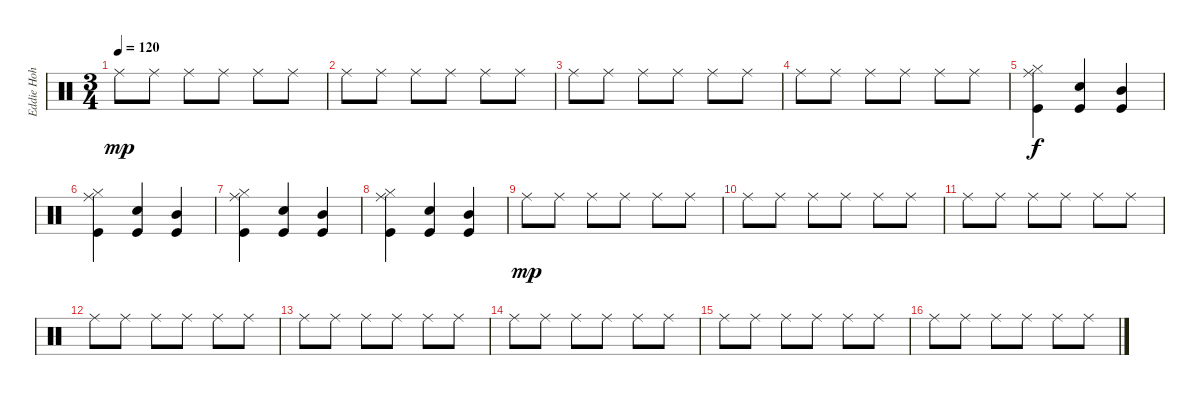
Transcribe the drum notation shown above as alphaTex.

\track ("Eddie Hoh" "Eddie Hoh") {instrument percussion}
\staff {score}
\articulation defaults
\ts (3 4)
\tempo 120
\clef neutral
\ks c "Ride (middle)".8{dy mp} "Ride (middle)".8 "Ride (middle)".8 "Ride (middle)".8 "Ride (middle)".8 "Ride (middle)".8
|
"Ride (middle)".8 "Ride (middle)".8 "Ride (middle)".8 "Ride (middle)".8 "Ride (middle)".8 "Ride (middle)".8 |
"Ride (middle)".8 "Ride (middle)".8 "Ride (middle)".8 "Ride (middle)".8 "Ride (middle)".8 "Ride (middle)".8 |
"Ride (middle)".8 "Ride (middle)".8 "Ride (middle)".8 "Ride (middle)".8 "Ride (middle)".8 "Ride (middle)".8 |
("Ride (middle)" "Hi-Hat (closed)" "Kick (hit)").4{dy f} ("Snare (hit) 2" "Kick (hit)").4 ("Mid Tom (hit)" "Kick (hit)").4 |
("Ride (middle)" "Hi-Hat (closed)" "Kick (hit)").4 ("Snare (hit) 2" "Kick (hit)").4 ("Mid Tom (hit)" "Kick (hit)").4 |
("Ride (middle)" "Hi-Hat (closed)" "Kick (hit)").4 ("Snare (hit) 2" "Kick (hit)").4 ("Mid Tom (hit)" "Kick (hit)").4 |
("Ride (middle)" "Hi-Hat (closed)" "Kick (hit)").4 ("Snare (hit) 2" "Kick (hit)").4 ("Mid Tom (hit)" "Kick (hit)").4 |
"Ride (middle)".8{dy mp} "Ride (middle)".8 "Ride (middle)".8 "Ride (middle)".8 "Ride (middle)".8 "Ride (middle)".8 |
"Ride (middle)".8 "Ride (middle)".8 "Ride (middle)".8 "Ride (middle)".8 "Ride (middle)".8 "Ride (middle)".8 |
"Ride (middle)".8 "Ride (middle)".8 "Ride (middle)".8 "Ride (middle)".8 "Ride (middle)".8 "Ride (middle)".8 |
"Ride (middle)".8 "Ride (middle)".8 "Ride (middle)".8 "Ride (middle)".8 "Ride (middle)".8 "Ride (middle)".8 |
"Ride (middle)".8 "Ride (middle)".8 "Ride (middle)".8 "Ride (middle)".8 "Ride (middle)".8 "Ride (middle)".8 |
"Ride (middle)".8 "Ride (middle)".8 "Ride (middle)".8 "Ride (middle)".8 "Ride (middle)".8 "Ride (middle)".8 |
"Ride (middle)".8 "Ride (middle)".8 "Ride (middle)".8 "Ride (middle)".8 "Ride (middle)".8 "Ride (middle)".8 |
"Ride (middle)".8 "Ride (middle)".8 "Ride (middle)".8 "Ride (middle)".8 "Ride (middle)".8 "Ride (middle)".8
